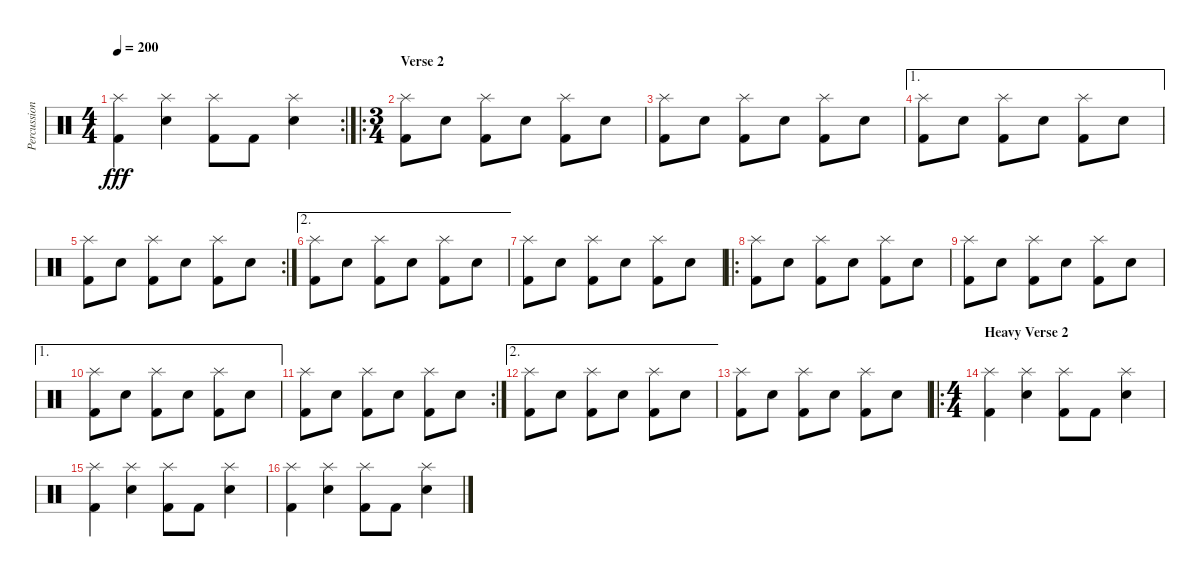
\track ("Percussion" "Percussion") {instrument percussion}
\staff {score}
\articulation defaults
\rc 2
\ts (4 4)
\tempo 200
\clef neutral
\ks c
("Splash (hit)" "Kick (hit) 2").4{dy fff} ("Splash (hit)" "Electric Snare (hit)").4 ("Splash (hit)" "Kick (hit) 2").8 "Kick (hit) 2".8 ("Splash (hit)" "Electric Snare (hit)").4 |
\ro
\ts (3 4)
\section ("" "Verse 2")
("Splash (hit)" "Kick (hit) 2").8 "Electric Snare (hit)".8 ("Splash (hit)" "Kick (hit) 2").8 "Electric Snare (hit)".8 ("Splash (hit)" "Kick (hit) 2").8 "Electric Snare (hit)".8 |
("Splash (hit)" "Kick (hit) 2").8 "Electric Snare (hit)".8 ("Splash (hit)" "Kick (hit) 2").8 "Electric Snare (hit)".8 ("Splash (hit)" "Kick (hit) 2").8 "Electric Snare (hit)".8 |
\ae 1
("Splash (hit)" "Kick (hit) 2").8 "Electric Snare (hit)".8 ("Splash (hit)" "Kick (hit) 2").8 "Electric Snare (hit)".8 ("Splash (hit)" "Kick (hit) 2").8 "Electric Snare (hit)".8 |
\rc 2
("Splash (hit)" "Kick (hit) 2").8 "Electric Snare (hit)".8 ("Splash (hit)" "Kick (hit) 2").8 "Electric Snare (hit)".8 ("Splash (hit)" "Kick (hit) 2").8 "Electric Snare (hit)".8 |
\ae 2
("Splash (hit)" "Kick (hit) 2").8 "Electric Snare (hit)".8 ("Splash (hit)" "Kick (hit) 2").8 "Electric Snare (hit)".8 ("Splash (hit)" "Kick (hit) 2").8 "Electric Snare (hit)".8 |
("Splash (hit)" "Kick (hit) 2").8 "Electric Snare (hit)".8 ("Splash (hit)" "Kick (hit) 2").8 "Electric Snare (hit)".8 ("Splash (hit)" "Kick (hit) 2").8 "Electric Snare (hit)".8 |
\ro
("Splash (hit)" "Kick (hit) 2").8 "Electric Snare (hit)".8 ("Splash (hit)" "Kick (hit) 2").8 "Electric Snare (hit)".8 ("Splash (hit)" "Kick (hit) 2").8 "Electric Snare (hit)".8 |
("Splash (hit)" "Kick (hit) 2").8 "Electric Snare (hit)".8 ("Splash (hit)" "Kick (hit) 2").8 "Electric Snare (hit)".8 ("Splash (hit)" "Kick (hit) 2").8 "Electric Snare (hit)".8 |
\ae 1
("Splash (hit)" "Kick (hit) 2").8 "Electric Snare (hit)".8 ("Splash (hit)" "Kick (hit) 2").8 "Electric Snare (hit)".8 ("Splash (hit)" "Kick (hit) 2").8 "Electric Snare (hit)".8 |
\rc 2
("Splash (hit)" "Kick (hit) 2").8 "Electric Snare (hit)".8 ("Splash (hit)" "Kick (hit) 2").8 "Electric Snare (hit)".8 ("Splash (hit)" "Kick (hit) 2").8 "Electric Snare (hit)".8 |
\ae 2
("Splash (hit)" "Kick (hit) 2").8 "Electric Snare (hit)".8 ("Splash (hit)" "Kick (hit) 2").8 "Electric Snare (hit)".8 ("Splash (hit)" "Kick (hit) 2").8 "Electric Snare (hit)".8 |
("Splash (hit)" "Kick (hit) 2").8 "Electric Snare (hit)".8 ("Splash (hit)" "Kick (hit) 2").8 "Electric Snare (hit)".8 ("Splash (hit)" "Kick (hit) 2").8 "Electric Snare (hit)".8 |
\ro
\ts (4 4)
\section ("" "Heavy Verse 2")
("Splash (hit)" "Kick (hit) 2").4 ("Splash (hit)" "Electric Snare (hit)").4 ("Splash (hit)" "Kick (hit) 2").8 "Kick (hit) 2".8 ("Splash (hit)" "Electric Snare (hit)").4 |
("Splash (hit)" "Kick (hit) 2").4 ("Splash (hit)" "Electric Snare (hit)").4 ("Splash (hit)" "Kick (hit) 2").8 "Kick (hit) 2".8 ("Splash (hit)" "Electric Snare (hit)").4 |
("Splash (hit)" "Kick (hit) 2").4 ("Splash (hit)" "Electric Snare (hit)").4 ("Splash (hit)" "Kick (hit) 2").8 "Kick (hit) 2".8 ("Splash (hit)" "Electric Snare (hit)").4
